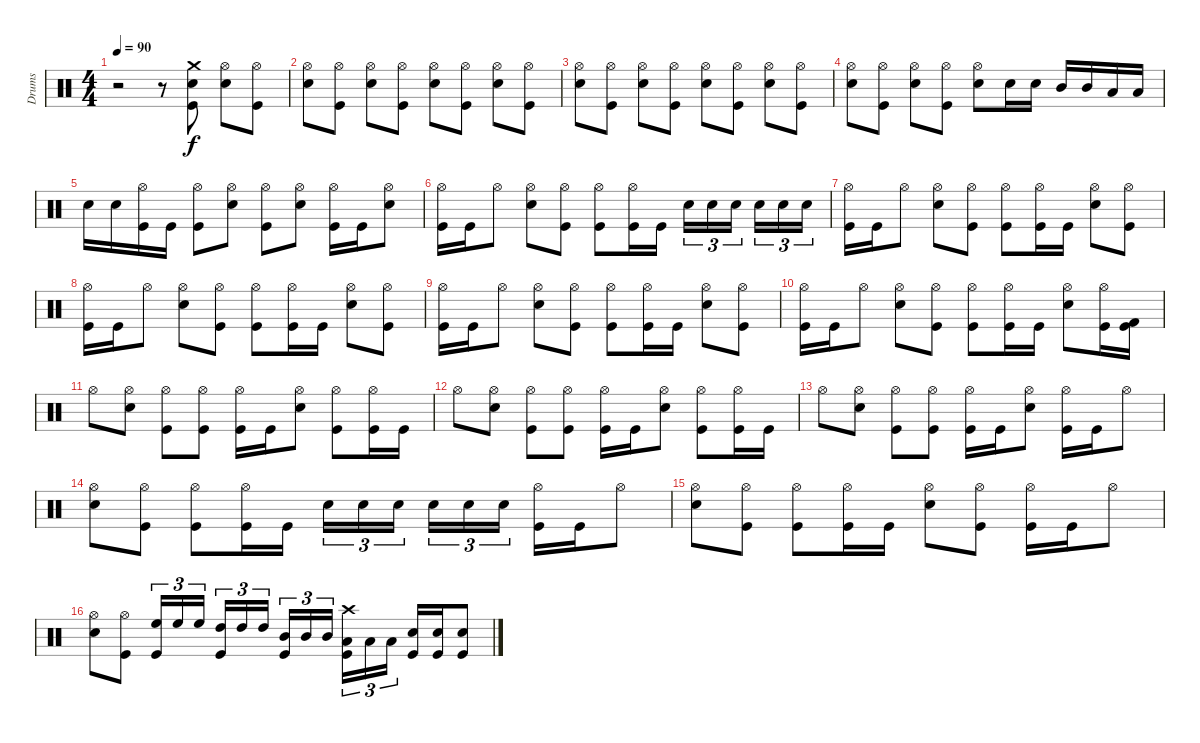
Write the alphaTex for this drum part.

\track ("Drums" "Drums") {instrument percussion}
\staff {score}
\articulation defaults
\ts (4 4)
\tempo 90
\clef neutral
\ks c
r.2{dy f} r.8 ("Crash medium (hit)" "Electric Snare (hit)" "Kick (hit)").8 ("Hi-Hat (open)" "Electric Snare (hit)").8 ("Hi-Hat (open)" "Kick (hit)").8 |
("Hi-Hat (open)" "Electric Snare (hit)").8 ("Hi-Hat (open)" "Kick (hit)").8 ("Hi-Hat (open)" "Electric Snare (hit)").8 ("Hi-Hat (open)" "Kick (hit)").8 ("Hi-Hat (open)" "Electric Snare (hit)").8 ("Hi-Hat (open)" "Kick (hit)").8 ("Hi-Hat (open)" "Electric Snare (hit)").8 ("Hi-Hat (open)" "Kick (hit)").8 |
("Hi-Hat (open)" "Electric Snare (hit)").8 ("Hi-Hat (open)" "Kick (hit)").8 ("Hi-Hat (open)" "Electric Snare (hit)").8 ("Hi-Hat (open)" "Kick (hit)").8 ("Hi-Hat (open)" "Electric Snare (hit)").8 ("Hi-Hat (open)" "Kick (hit)").8 ("Hi-Hat (open)" "Electric Snare (hit)").8 ("Hi-Hat (open)" "Kick (hit)").8 |
("Hi-Hat (open)" "Electric Snare (hit)").8 ("Hi-Hat (open)" "Kick (hit)").8 ("Hi-Hat (open)" "Electric Snare (hit)").8 ("Hi-Hat (open)" "Kick (hit)").8 ("Hi-Hat (open)" "Electric Snare (hit)").8 "Electric Snare (hit)".16 "Electric Snare (hit)".16 "Mid Tom (hit)".16 "Mid Tom (hit)".16 "Low Tom (hit)".16 "Low Tom (hit)".16 |
"Electric Snare (hit)".16 "Electric Snare (hit)".16 ("Hi-Hat (open)" "Kick (hit)").16 "Kick (hit)".16 ("Hi-Hat (open)" "Kick (hit)").8 ("Hi-Hat (open)" "Electric Snare (hit)").8 ("Hi-Hat (open)" "Kick (hit)").8 ("Hi-Hat (open)" "Electric Snare (hit)").8 ("Hi-Hat (open)" "Kick (hit)").16 "Kick (hit)".16 ("Hi-Hat (open)" "Electric Snare (hit)").8 |
("Hi-Hat (open)" "Kick (hit)").16 "Kick (hit)".16 "Hi-Hat (open)".8 ("Hi-Hat (open)" "Electric Snare (hit)").8 ("Hi-Hat (open)" "Kick (hit)").8 ("Hi-Hat (open)" "Kick (hit)").8 ("Hi-Hat (open)" "Kick (hit)").16 "Kick (hit)".16 "Electric Snare (hit)".16{tu (3 2)} "Electric Snare (hit)".16{tu (3 2)} "Electric Snare (hit)".16{tu (3 2) beam splitsecondary} "Electric Snare (hit)".16{tu (3 2)} "Electric Snare (hit)".16{tu (3 2)} "Electric Snare (hit)".16{tu (3 2)} |
("Hi-Hat (open)" "Kick (hit)").16 "Kick (hit)".16 "Hi-Hat (open)".8 ("Hi-Hat (open)" "Electric Snare (hit)").8 ("Hi-Hat (open)" "Kick (hit)").8 ("Hi-Hat (open)" "Kick (hit)").8 ("Hi-Hat (open)" "Kick (hit)").16 "Kick (hit)".16 ("Hi-Hat (open)" "Electric Snare (hit)").8 ("Hi-Hat (open)" "Kick (hit)").8 |
("Hi-Hat (open)" "Kick (hit)").16 "Kick (hit)".16 "Hi-Hat (open)".8 ("Hi-Hat (open)" "Electric Snare (hit)").8 ("Hi-Hat (open)" "Kick (hit)").8 ("Hi-Hat (open)" "Kick (hit)").8 ("Hi-Hat (open)" "Kick (hit)").16 "Kick (hit)".16 ("Hi-Hat (open)" "Electric Snare (hit)").8 ("Hi-Hat (open)" "Kick (hit)").8 |
("Hi-Hat (open)" "Kick (hit)").16 "Kick (hit)".16 "Hi-Hat (open)".8 ("Hi-Hat (open)" "Electric Snare (hit)").8 ("Hi-Hat (open)" "Kick (hit)").8 ("Hi-Hat (open)" "Kick (hit)").8 ("Hi-Hat (open)" "Kick (hit)").16 "Kick (hit)".16 ("Hi-Hat (open)" "Electric Snare (hit)").8 ("Hi-Hat (open)" "Kick (hit)").8 |
("Hi-Hat (open)" "Kick (hit)").16 "Kick (hit)".16 "Hi-Hat (open)".8 ("Hi-Hat (open)" "Electric Snare (hit)").8 ("Hi-Hat (open)" "Kick (hit)").8 ("Hi-Hat (open)" "Kick (hit)").8 ("Hi-Hat (open)" "Kick (hit)").16 "Kick (hit)".16 ("Hi-Hat (open)" "Electric Snare (hit)").8 ("Hi-Hat (open)" "Kick (hit)").16 ("Kick (hit) 2" "Kick (hit)").16 |
"Hi-Hat (open)".8 ("Hi-Hat (open)" "Electric Snare (hit)").8 ("Hi-Hat (open)" "Kick (hit)").8 ("Hi-Hat (open)" "Kick (hit)").8 ("Hi-Hat (open)" "Kick (hit)").16 "Kick (hit)".16 ("Hi-Hat (open)" "Electric Snare (hit)").8 ("Hi-Hat (open)" "Kick (hit)").8 ("Hi-Hat (open)" "Kick (hit)").16 "Kick (hit)".16 |
"Hi-Hat (open)".8 ("Hi-Hat (open)" "Electric Snare (hit)").8 ("Hi-Hat (open)" "Kick (hit)").8 ("Hi-Hat (open)" "Kick (hit)").8 ("Hi-Hat (open)" "Kick (hit)").16 "Kick (hit)".16 ("Hi-Hat (open)" "Electric Snare (hit)").8 ("Hi-Hat (open)" "Kick (hit)").8 ("Hi-Hat (open)" "Kick (hit)").16 "Kick (hit)".16 |
"Hi-Hat (open)".8 ("Hi-Hat (open)" "Electric Snare (hit)").8 ("Hi-Hat (open)" "Kick (hit)").8 ("Hi-Hat (open)" "Kick (hit)").8 ("Hi-Hat (open)" "Kick (hit)").16 "Kick (hit)".16 ("Hi-Hat (open)" "Electric Snare (hit)").8 ("Hi-Hat (open)" "Kick (hit)").16 "Kick (hit)".16 "Hi-Hat (open)".8 |
("Hi-Hat (open)" "Electric Snare (hit)").8 ("Hi-Hat (open)" "Kick (hit)").8 ("Hi-Hat (open)" "Kick (hit)").8 ("Hi-Hat (open)" "Kick (hit)").16 "Kick (hit)".16 "Electric Snare (hit)".16{tu (3 2)} "Electric Snare (hit)".16{tu (3 2)} "Electric Snare (hit)".16{tu (3 2) beam splitsecondary} "Electric Snare (hit)".16{tu (3 2)} "Electric Snare (hit)".16{tu (3 2)} "Electric Snare (hit)".16{tu (3 2)} ("Hi-Hat (open)" "Kick (hit)").16 "Kick (hit)".16 "Hi-Hat (open)".8 |
("Hi-Hat (open)" "Electric Snare (hit)").8 ("Hi-Hat (open)" "Kick (hit)").8 ("Hi-Hat (open)" "Kick (hit)").8 ("Hi-Hat (open)" "Kick (hit)").16 "Kick (hit)".16 ("Hi-Hat (open)" "Electric Snare (hit)").8 ("Hi-Hat (open)" "Kick (hit)").8 ("Hi-Hat (open)" "Kick (hit)").16 "Kick (hit)".16 "Hi-Hat (open)".8 |
("Hi-Hat (open)" "Electric Snare (hit)").8 ("Hi-Hat (open)" "Kick (hit)").8 ("High Floor Tom (hit)" "Kick (hit)").16{tu (3 2)} "High Floor Tom (hit)".16{tu (3 2)} "High Floor Tom (hit)".16{tu (3 2) beam splitsecondary} ("High Tom (hit)" "Kick (hit)").16{tu (3 2)} "High Tom (hit)".16{tu (3 2)} "High Tom (hit)".16{tu (3 2)} ("Mid Tom (hit)" "Kick (hit)").16{tu (3 2)} "Mid Tom (hit)".16{tu (3 2)} "Mid Tom (hit)".16{tu (3 2) beam splitsecondary} ("Crash high (hit)" "Low Tom (hit)" "Kick (hit)").16{tu (3 2)} "Low Tom (hit)".16{tu (3 2)} "Low Tom (hit)".16{tu (3 2)} ("Electric Snare (hit)" "Kick (hit)").16 ("Electric Snare (hit)" "Kick (hit)").16 ("Electric Snare (hit)" "Kick (hit)").8
